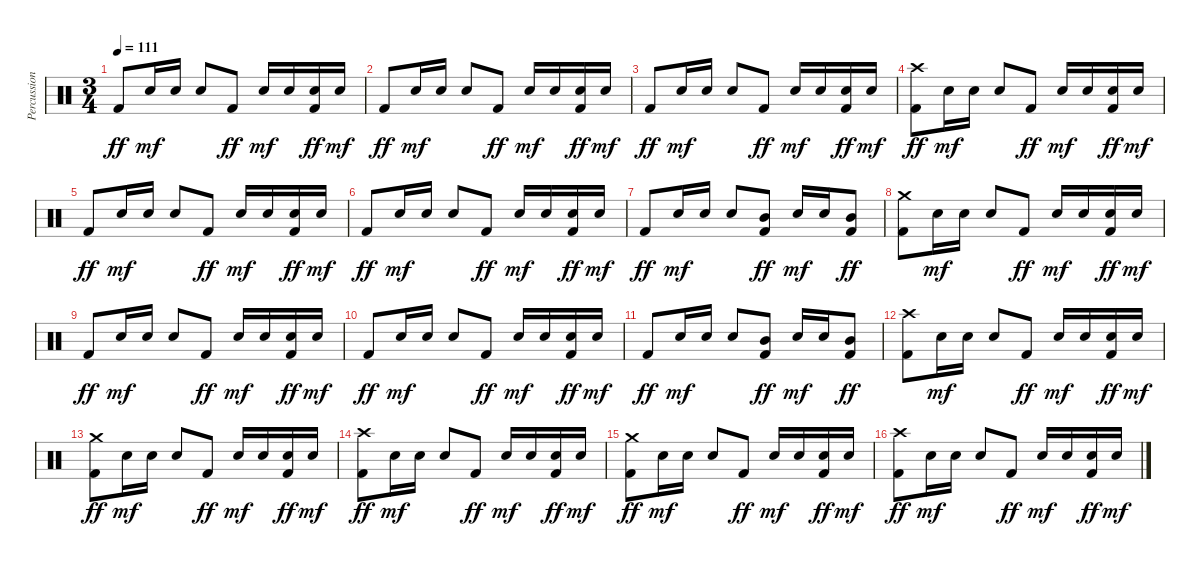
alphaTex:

\track ("Percussion" "Percussion") {instrument percussion}
\staff {score}
\articulation defaults
\ts (3 4)
\tempo 111
\clef neutral
\ks c "Kick (hit) 2".8{dy ff} "Snare (hit) 2".16{dy mf} "Snare (hit) 2".16 "Snare (hit) 2".8 "Kick (hit) 2".8{dy ff} "Snare (hit) 2".16{dy mf} "Snare (hit) 2".16
("Snare (hit) 2" "Kick (hit) 2").16{dy ff} "Snare (hit) 2".16{dy mf} |
"Kick (hit) 2".8{dy ff} "Snare (hit) 2".16{dy mf} "Snare (hit) 2".16 "Snare (hit) 2".8 "Kick (hit) 2".8{dy ff} "Snare (hit) 2".16{dy mf} "Snare (hit) 2".16 ("Snare (hit) 2" "Kick (hit) 2").16{dy ff} "Snare (hit) 2".16{dy mf} |
"Kick (hit) 2".8{dy ff} "Snare (hit) 2".16{dy mf} "Snare (hit) 2".16 "Snare (hit) 2".8 "Kick (hit) 2".8{dy ff} "Snare (hit) 2".16{dy mf} "Snare (hit) 2".16 ("Snare (hit) 2" "Kick (hit) 2").16{dy ff} "Snare (hit) 2".16{dy mf} |
("Crash high (hit)" "Kick (hit) 2").8{dy ff} "Snare (hit) 2".16{dy mf} "Snare (hit) 2".16 "Snare (hit) 2".8 "Kick (hit) 2".8{dy ff} "Snare (hit) 2".16{dy mf} "Snare (hit) 2".16 ("Snare (hit) 2" "Kick (hit) 2").16{dy ff} "Snare (hit) 2".16{dy mf} |
"Kick (hit) 2".8{dy ff} "Snare (hit) 2".16{dy mf} "Snare (hit) 2".16 "Snare (hit) 2".8 "Kick (hit) 2".8{dy ff} "Snare (hit) 2".16{dy mf} "Snare (hit) 2".16 ("Snare (hit) 2" "Kick (hit) 2").16{dy ff} "Snare (hit) 2".16{dy mf} |
"Kick (hit) 2".8{dy ff} "Snare (hit) 2".16{dy mf} "Snare (hit) 2".16 "Snare (hit) 2".8 "Kick (hit) 2".8{dy ff} "Snare (hit) 2".16{dy mf} "Snare (hit) 2".16 ("Snare (hit) 2" "Kick (hit) 2").16{dy ff} "Snare (hit) 2".16{dy mf} |
"Kick (hit) 2".8{dy ff} "Snare (hit) 2".16{dy mf} "Snare (hit) 2".16 "Snare (hit) 2".8 ("Mid Tom (hit)" "Kick (hit) 2").8{dy ff} "Snare (hit) 2".16{dy mf} "Snare (hit) 2".16 ("Mid Tom (hit)" "Kick (hit) 2").8{dy ff} |
("Crash medium (hit)" "Kick (hit) 2").8 "Snare (hit) 2".16{dy mf} "Snare (hit) 2".16 "Snare (hit) 2".8 "Kick (hit) 2".8{dy ff} "Snare (hit) 2".16{dy mf} "Snare (hit) 2".16 ("Snare (hit) 2" "Kick (hit) 2").16{dy ff} "Snare (hit) 2".16{dy mf} |
"Kick (hit) 2".8{dy ff} "Snare (hit) 2".16{dy mf} "Snare (hit) 2".16 "Snare (hit) 2".8 "Kick (hit) 2".8{dy ff} "Snare (hit) 2".16{dy mf} "Snare (hit) 2".16 ("Snare (hit) 2" "Kick (hit) 2").16{dy ff} "Snare (hit) 2".16{dy mf} |
"Kick (hit) 2".8{dy ff} "Snare (hit) 2".16{dy mf} "Snare (hit) 2".16 "Snare (hit) 2".8 "Kick (hit) 2".8{dy ff} "Snare (hit) 2".16{dy mf} "Snare (hit) 2".16 ("Snare (hit) 2" "Kick (hit) 2").16{dy ff} "Snare (hit) 2".16{dy mf} |
"Kick (hit) 2".8{dy ff} "Snare (hit) 2".16{dy mf} "Snare (hit) 2".16 "Snare (hit) 2".8 ("Mid Tom (hit)" "Kick (hit) 2").8{dy ff} "Snare (hit) 2".16{dy mf} "Snare (hit) 2".16 ("Mid Tom (hit)" "Kick (hit) 2").8{dy ff} |
("Crash high (hit)" "Kick (hit) 2").8 "Snare (hit) 2".16{dy mf} "Snare (hit) 2".16 "Snare (hit) 2".8 "Kick (hit) 2".8{dy ff} "Snare (hit) 2".16{dy mf} "Snare (hit) 2".16 ("Snare (hit) 2" "Kick (hit) 2").16{dy ff} "Snare (hit) 2".16{dy mf} |
("Crash medium (hit)" "Kick (hit) 2").8{dy ff} "Snare (hit) 2".16{dy mf} "Snare (hit) 2".16 "Snare (hit) 2".8 "Kick (hit) 2".8{dy ff} "Snare (hit) 2".16{dy mf} "Snare (hit) 2".16 ("Snare (hit) 2" "Kick (hit) 2").16{dy ff} "Snare (hit) 2".16{dy mf} |
("Crash high (hit)" "Kick (hit) 2").8{dy ff} "Snare (hit) 2".16{dy mf} "Snare (hit) 2".16 "Snare (hit) 2".8 "Kick (hit) 2".8{dy ff} "Snare (hit) 2".16{dy mf} "Snare (hit) 2".16 ("Snare (hit) 2" "Kick (hit) 2").16{dy ff} "Snare (hit) 2".16{dy mf} |
("Crash medium (hit)" "Kick (hit) 2").8{dy ff} "Snare (hit) 2".16{dy mf} "Snare (hit) 2".16 "Snare (hit) 2".8 "Kick (hit) 2".8{dy ff} "Snare (hit) 2".16{dy mf} "Snare (hit) 2".16 ("Snare (hit) 2" "Kick (hit) 2").16{dy ff} "Snare (hit) 2".16{dy mf} |
("Crash high (hit)" "Kick (hit) 2").8{dy ff} "Snare (hit) 2".16{dy mf} "Snare (hit) 2".16 "Snare (hit) 2".8 "Kick (hit) 2".8{dy ff} "Snare (hit) 2".16{dy mf} "Snare (hit) 2".16 ("Snare (hit) 2" "Kick (hit) 2").16{dy ff} "Snare (hit) 2".16{dy mf}
